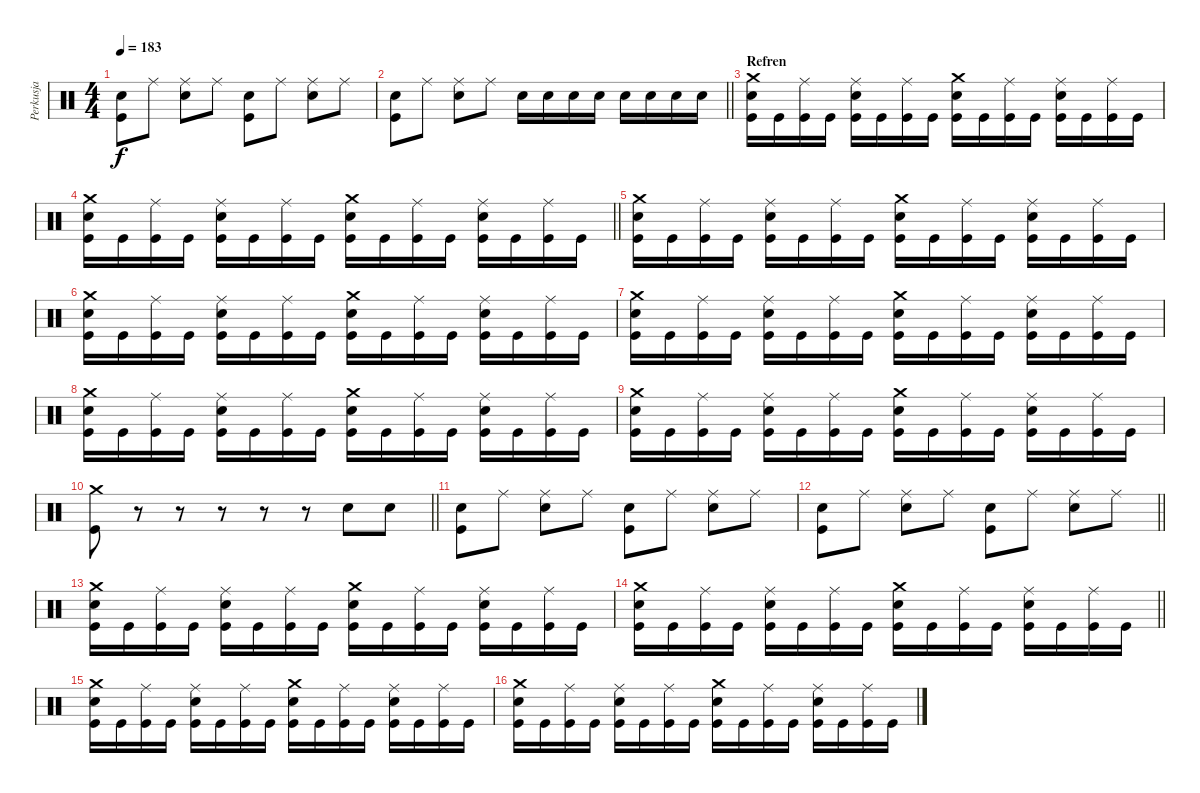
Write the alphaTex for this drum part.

\track ("Perkusja" "Perkusja") {instrument percussion}
\staff {score}
\articulation defaults
\ts (4 4)
\tempo 183
\clef neutral
\ks c
("Kick (hit)" "Snare (hit) 2").8{dy f} "Ride (middle)".8 ("Ride (middle)" "Snare (hit) 2").8 "Ride (middle)".8 ("Kick (hit)" "Snare (hit) 2").8 "Ride (middle)".8 ("Ride (middle)" "Snare (hit) 2").8 "Ride (middle)".8 |
\barLineRight lightlight
("Kick (hit)" "Snare (hit) 2").8 "Ride (middle)".8 ("Snare (hit) 2" "Ride (middle)").8 "Ride (middle)".8 "Snare (hit) 2".16 "Snare (hit) 2".16 "Snare (hit) 2".16 "Snare (hit) 2".16 "Snare (hit) 2".16 "Snare (hit) 2".16 "Snare (hit) 2".16 "Snare (hit) 2".16 |
\section ("" "Refren")
("Kick (hit)" "Snare (hit) 2" "Crash medium (hit)").16 "Kick (hit)".16 ("Kick (hit)" "Ride (middle)").16 "Kick (hit)".16 ("Kick (hit)" "Ride (middle)" "Snare (hit) 2").16 "Kick (hit)".16 ("Kick (hit)" "Ride (middle)").16 "Kick (hit)".16 ("Kick (hit)" "Snare (hit) 2" "Crash medium (hit)").16 "Kick (hit)".16 ("Kick (hit)" "Ride (middle)").16 "Kick (hit)".16 ("Kick (hit)" "Ride (middle)" "Snare (hit) 2").16 "Kick (hit)".16 ("Kick (hit)" "Ride (middle)").16 "Kick (hit)".16 |
\barLineRight lightlight
("Kick (hit)" "Snare (hit) 2" "Crash medium (hit)").16 "Kick (hit)".16 ("Kick (hit)" "Ride (middle)").16 "Kick (hit)".16 ("Kick (hit)" "Ride (middle)" "Snare (hit) 2").16 "Kick (hit)".16 ("Kick (hit)" "Ride (middle)").16 "Kick (hit)".16 ("Kick (hit)" "Snare (hit) 2" "Crash medium (hit)").16 "Kick (hit)".16 ("Kick (hit)" "Ride (middle)").16 "Kick (hit)".16 ("Kick (hit)" "Ride (middle)" "Snare (hit) 2").16 "Kick (hit)".16 ("Kick (hit)" "Ride (middle)").16 "Kick (hit)".16 |
("Kick (hit)" "Snare (hit) 2" "Crash medium (hit)").16 "Kick (hit)".16 ("Kick (hit)" "Ride (middle)").16 "Kick (hit)".16 ("Kick (hit)" "Ride (middle)" "Snare (hit) 2").16 "Kick (hit)".16 ("Kick (hit)" "Ride (middle)").16 "Kick (hit)".16 ("Kick (hit)" "Snare (hit) 2" "Crash medium (hit)").16 "Kick (hit)".16 ("Kick (hit)" "Ride (middle)").16 "Kick (hit)".16 ("Kick (hit)" "Ride (middle)" "Snare (hit) 2").16 "Kick (hit)".16 ("Kick (hit)" "Ride (middle)").16 "Kick (hit)".16 |
("Kick (hit)" "Snare (hit) 2" "Crash medium (hit)").16 "Kick (hit)".16 ("Kick (hit)" "Ride (middle)").16 "Kick (hit)".16 ("Kick (hit)" "Ride (middle)" "Snare (hit) 2").16 "Kick (hit)".16 ("Kick (hit)" "Ride (middle)").16 "Kick (hit)".16 ("Kick (hit)" "Snare (hit) 2" "Crash medium (hit)").16 "Kick (hit)".16 ("Kick (hit)" "Ride (middle)").16 "Kick (hit)".16 ("Kick (hit)" "Ride (middle)" "Snare (hit) 2").16 "Kick (hit)".16 ("Kick (hit)" "Ride (middle)").16 "Kick (hit)".16 |
("Kick (hit)" "Snare (hit) 2" "Crash medium (hit)").16 "Kick (hit)".16 ("Kick (hit)" "Ride (middle)").16 "Kick (hit)".16 ("Kick (hit)" "Ride (middle)" "Snare (hit) 2").16 "Kick (hit)".16 ("Kick (hit)" "Ride (middle)").16 "Kick (hit)".16 ("Kick (hit)" "Snare (hit) 2" "Crash medium (hit)").16 "Kick (hit)".16 ("Kick (hit)" "Ride (middle)").16 "Kick (hit)".16 ("Kick (hit)" "Ride (middle)" "Snare (hit) 2").16 "Kick (hit)".16 ("Kick (hit)" "Ride (middle)").16 "Kick (hit)".16 |
("Kick (hit)" "Snare (hit) 2" "Crash medium (hit)").16 "Kick (hit)".16 ("Kick (hit)" "Ride (middle)").16 "Kick (hit)".16 ("Kick (hit)" "Ride (middle)" "Snare (hit) 2").16 "Kick (hit)".16 ("Kick (hit)" "Ride (middle)").16 "Kick (hit)".16 ("Kick (hit)" "Snare (hit) 2" "Crash medium (hit)").16 "Kick (hit)".16 ("Kick (hit)" "Ride (middle)").16 "Kick (hit)".16 ("Kick (hit)" "Ride (middle)" "Snare (hit) 2").16 "Kick (hit)".16 ("Kick (hit)" "Ride (middle)").16 "Kick (hit)".16 |
("Kick (hit)" "Snare (hit) 2" "Crash medium (hit)").16 "Kick (hit)".16 ("Kick (hit)" "Ride (middle)").16 "Kick (hit)".16 ("Kick (hit)" "Ride (middle)" "Snare (hit) 2").16 "Kick (hit)".16 ("Kick (hit)" "Ride (middle)").16 "Kick (hit)".16 ("Kick (hit)" "Snare (hit) 2" "Crash medium (hit)").16 "Kick (hit)".16 ("Kick (hit)" "Ride (middle)").16 "Kick (hit)".16 ("Kick (hit)" "Ride (middle)" "Snare (hit) 2").16 "Kick (hit)".16 ("Kick (hit)" "Ride (middle)").16 "Kick (hit)".16 |
\barLineRight lightlight
("Kick (hit)" "Crash medium (hit)").8 r.8 r.8 r.8 r.8 r.8 "Snare (hit) 2".8 "Snare (hit) 2".8 |
("Kick (hit)" "Snare (hit) 2").8 "Ride (middle)".8 ("Ride (middle)" "Snare (hit) 2").8 "Ride (middle)".8 ("Kick (hit)" "Snare (hit) 2").8 "Ride (middle)".8 ("Ride (middle)" "Snare (hit) 2").8 "Ride (middle)".8 |
\barLineRight lightlight
("Kick (hit)" "Snare (hit) 2").8 "Ride (middle)".8 ("Ride (middle)" "Snare (hit) 2").8 "Ride (middle)".8 ("Kick (hit)" "Snare (hit) 2").8 "Ride (middle)".8 ("Ride (middle)" "Snare (hit) 2").8 "Ride (middle)".8 |
("Kick (hit)" "Snare (hit) 2" "Crash medium (hit)").16 "Kick (hit)".16 ("Kick (hit)" "Ride (middle)").16 "Kick (hit)".16 ("Kick (hit)" "Ride (middle)" "Snare (hit) 2").16 "Kick (hit)".16 ("Kick (hit)" "Ride (middle)").16 "Kick (hit)".16 ("Kick (hit)" "Snare (hit) 2" "Crash medium (hit)").16 "Kick (hit)".16 ("Kick (hit)" "Ride (middle)").16 "Kick (hit)".16 ("Kick (hit)" "Ride (middle)" "Snare (hit) 2").16 "Kick (hit)".16 ("Kick (hit)" "Ride (middle)").16 "Kick (hit)".16 |
\barLineRight lightlight
("Kick (hit)" "Snare (hit) 2" "Crash medium (hit)").16 "Kick (hit)".16 ("Kick (hit)" "Ride (middle)").16 "Kick (hit)".16 ("Kick (hit)" "Ride (middle)" "Snare (hit) 2").16 "Kick (hit)".16 ("Kick (hit)" "Ride (middle)").16 "Kick (hit)".16 ("Kick (hit)" "Snare (hit) 2" "Crash medium (hit)").16 "Kick (hit)".16 ("Kick (hit)" "Ride (middle)").16 "Kick (hit)".16 ("Kick (hit)" "Ride (middle)" "Snare (hit) 2").16 "Kick (hit)".16 ("Kick (hit)" "Ride (middle)").16 "Kick (hit)".16 |
("Kick (hit)" "Snare (hit) 2" "Crash medium (hit)").16 "Kick (hit)".16 ("Kick (hit)" "Ride (middle)").16 "Kick (hit)".16 ("Kick (hit)" "Ride (middle)" "Snare (hit) 2").16 "Kick (hit)".16 ("Kick (hit)" "Ride (middle)").16 "Kick (hit)".16 ("Kick (hit)" "Snare (hit) 2" "Crash medium (hit)").16 "Kick (hit)".16 ("Kick (hit)" "Ride (middle)").16 "Kick (hit)".16 ("Kick (hit)" "Ride (middle)" "Snare (hit) 2").16 "Kick (hit)".16 ("Kick (hit)" "Ride (middle)").16 "Kick (hit)".16 |
("Kick (hit)" "Snare (hit) 2" "Crash medium (hit)").16 "Kick (hit)".16 ("Kick (hit)" "Ride (middle)").16 "Kick (hit)".16 ("Kick (hit)" "Ride (middle)" "Snare (hit) 2").16 "Kick (hit)".16 ("Kick (hit)" "Ride (middle)").16 "Kick (hit)".16 ("Kick (hit)" "Snare (hit) 2" "Crash medium (hit)").16 "Kick (hit)".16 ("Kick (hit)" "Ride (middle)").16 "Kick (hit)".16 ("Kick (hit)" "Ride (middle)" "Snare (hit) 2").16 "Kick (hit)".16 ("Kick (hit)" "Ride (middle)").16 "Kick (hit)".16
